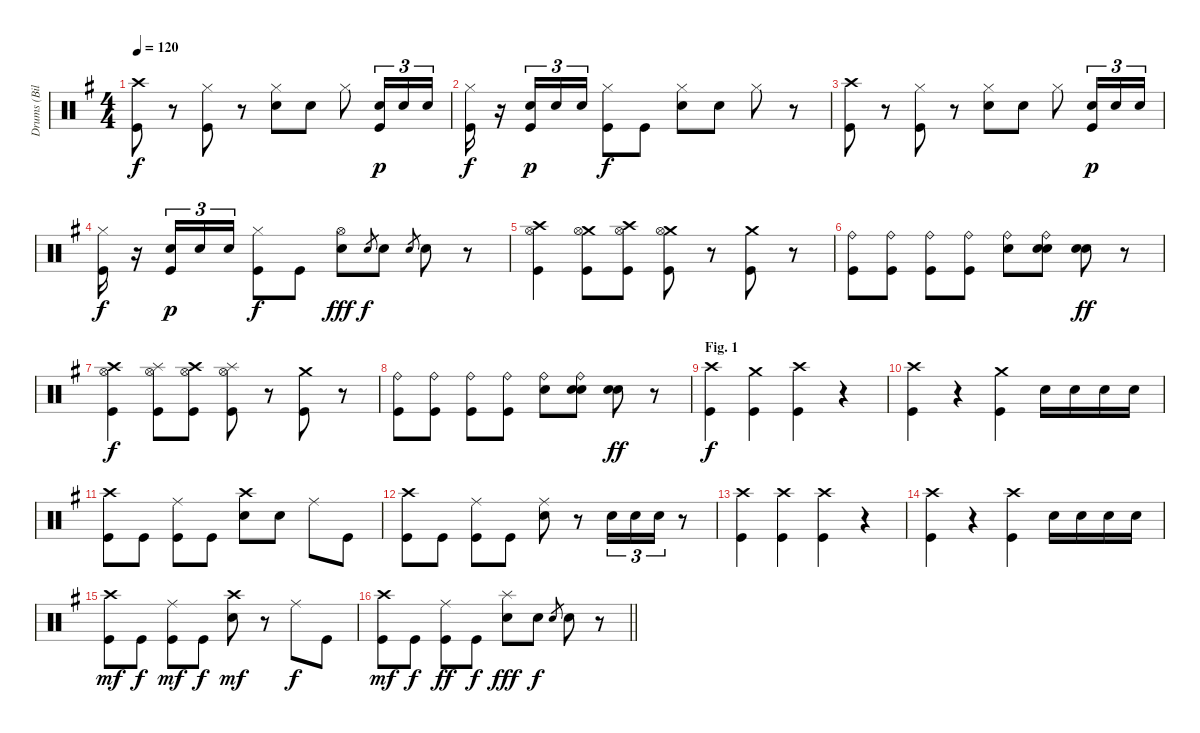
\track ("Drums (Bill Ward)" "Drums (Bil") {instrument percussion}
\staff {score}
\articulation defaults
\ts (4 4)
\tempo 120
\clef neutral
\ks g
("Crash high (hit)" "Kick (hit)").8{dy f} r.8 ("Hi-Hat (closed)" "Kick (hit)").8 r.8 ("Hi-Hat (closed)" "Electric Snare (hit)").8 "Electric Snare (hit)".8 "Hi-Hat (closed)".8 ("Electric Snare (hit)" "Kick (hit)").16{tu (3 2) dy p} "Electric Snare (hit)".16{tu (3 2)} "Electric Snare (hit)".16{tu (3 2)} |
("Hi-Hat (closed)" "Kick (hit)").16{dy f} r.16 ("Electric Snare (hit)" "Kick (hit)").16{tu (3 2) dy p} "Electric Snare (hit)".16{tu (3 2)} "Electric Snare (hit)".16{tu (3 2)} ("Hi-Hat (closed)" "Kick (hit)").8{dy f} "Kick (hit)".8 ("Hi-Hat (closed)" "Electric Snare (hit)").8 "Electric Snare (hit)".8 "Hi-Hat (closed)".8 r.8 |
("Crash high (hit)" "Kick (hit)").8 r.8 ("Hi-Hat (closed)" "Kick (hit)").8 r.8 ("Hi-Hat (closed)" "Electric Snare (hit)").8 "Electric Snare (hit)".8 "Hi-Hat (closed)".8 ("Electric Snare (hit)" "Kick (hit)").16{tu (3 2) dy p} "Electric Snare (hit)".16{tu (3 2)} "Electric Snare (hit)".16{tu (3 2)} |
("Hi-Hat (closed)" "Kick (hit)").16{dy f} r.16 ("Electric Snare (hit)" "Kick (hit)").16{tu (3 2) dy p} "Electric Snare (hit)".16{tu (3 2)} "Electric Snare (hit)".16{tu (3 2)} ("Hi-Hat (closed)" "Kick (hit)").8{dy f} "Kick (hit)".8 ("Hi-Hat (open)" "Electric Snare (hit)").8{dy fff} "Electric Snare (hit)".8{gr dy f} "Electric Snare (hit)".8 "Electric Snare (hit)".8{gr} "Electric Snare (hit)".8 r.8 |
("Crash high (hit)" "Hi-Hat (open)" "Kick (hit)").4 ("Crash medium (hit)" "Hi-Hat (open)" "Kick (hit)").8 ("Crash high (hit)" "Hi-Hat (open)" "Kick (hit)").8 ("Crash medium (hit)" "Hi-Hat (open)" "Kick (hit)").8 r.8 ("Crash medium (hit)" "Kick (hit)").8 r.8 |
("Ride (bell)" "Kick (hit)").8 ("Ride (bell)" "Kick (hit)").8 ("Ride (bell)" "Kick (hit)").8 ("Ride (bell)" "Kick (hit)").8 ("Ride (bell)" "Electric Snare (hit)").8 ("Ride (bell)" "Electric Snare (hit)" "Electric Snare (hit)").8 ("Electric Snare (hit)" "Electric Snare (hit)").8{dy ff} r.8 |
("Crash high (hit)" "Hi-Hat (open)" "Kick (hit)").4{dy f} ("Splash (hit)" "Hi-Hat (open)" "Kick (hit)").8 ("Crash high (hit)" "Hi-Hat (open)" "Kick (hit)").8 ("Splash (hit)" "Hi-Hat (open)" "Kick (hit)").8 r.8 ("Crash medium (hit)" "Kick (hit)").8 r.8 |
("Ride (bell)" "Kick (hit)").8 ("Ride (bell)" "Kick (hit)").8 ("Ride (bell)" "Kick (hit)").8 ("Ride (bell)" "Kick (hit)").8 ("Ride (bell)" "Electric Snare (hit)").8 ("Ride (bell)" "Electric Snare (hit)" "Electric Snare (hit)").8 ("Electric Snare (hit)" "Electric Snare (hit)").8{dy ff} r.8 |
\section ("" "Fig. 1")
("Crash high (hit)" "Kick (hit)").4{dy f} ("Crash medium (hit)" "Kick (hit)").4 ("Crash high (hit)" "Kick (hit)").4 r.4 |
("Crash high (hit)" "Kick (hit)").4 r.4 ("Crash medium (hit)" "Kick (hit)").4 "Electric Snare (hit)".16 "Electric Snare (hit)".16 "Electric Snare (hit)".16 "Electric Snare (hit)".16 |
("Crash high (hit)" "Kick (hit)").8 "Kick (hit)".8 ("Ride (middle)" "Kick (hit)").8 "Kick (hit)".8 ("Crash high (hit)" "Electric Snare (hit)").8 "Electric Snare (hit)".8 "Ride (middle)".8 "Kick (hit)".8 |
("Crash high (hit)" "Kick (hit)").8 "Kick (hit)".8 ("Ride (middle)" "Kick (hit)").8 "Kick (hit)".8 ("Ride (middle)" "Electric Snare (hit)").8 r.8 "Electric Snare (hit)".16{tu (3 2)} "Electric Snare (hit)".16{tu (3 2)} "Electric Snare (hit)".16{tu (3 2)} r.8 |
("Crash high (hit)" "Kick (hit)").4 ("Crash high (hit)" "Kick (hit)").4 ("Crash high (hit)" "Kick (hit)").4 r.4 |
("Crash high (hit)" "Kick (hit)").4 r.4 ("Crash high (hit)" "Kick (hit)").4 "Electric Snare (hit)".16 "Electric Snare (hit)".16 "Electric Snare (hit)".16 "Electric Snare (hit)".16 |
("Crash high (hit)" "Kick (hit)").8{dy mf} "Kick (hit)".8{dy f} ("Ride (middle)" "Kick (hit)").8{dy mf} "Kick (hit)".8{dy f} ("Crash high (hit)" "Electric Snare (hit)").8{dy mf} r.8 "Ride (middle)".8{dy f} "Kick (hit)".8 |
\barLineRight lightlight
("Crash high (hit)" "Kick (hit)").8{dy mf} "Kick (hit)".8{dy f} ("Ride (middle)" "Kick (hit)").8{dy ff} "Kick (hit)".8{dy f} ("Splash (hit)" "Electric Snare (hit)").8{dy fff} "Electric Snare (hit)".8{dy f} "Electric Snare (hit)".8{gr} "Electric Snare (hit)".8 r.8
